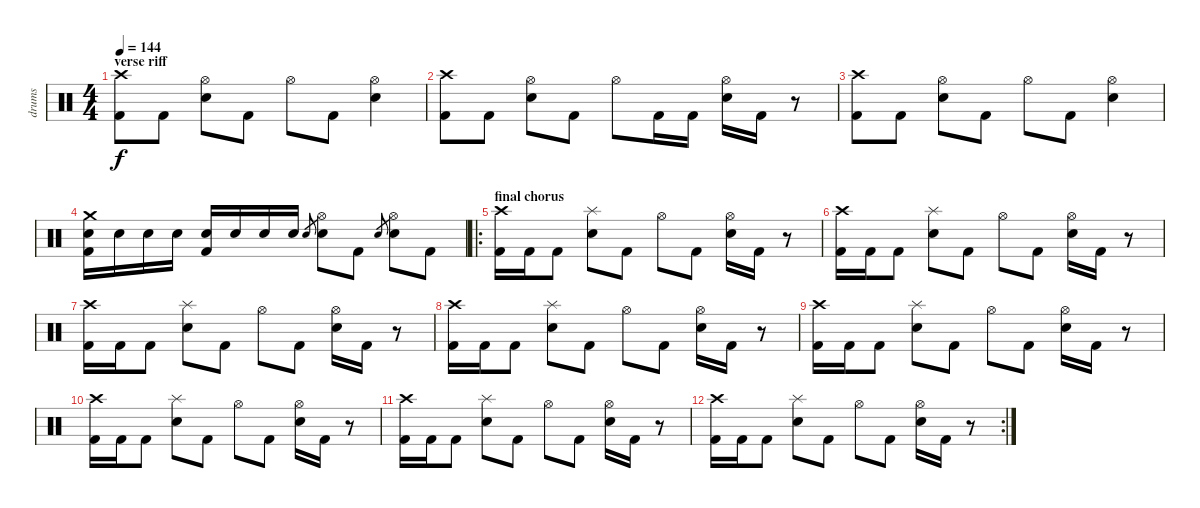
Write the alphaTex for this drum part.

\track ("drums" "drums") {instrument percussion}
\staff {score}
\articulation defaults
\ts (4 4)
\section ("" "verse riff")
\tempo 144
\clef neutral
\ks c
("Crash high (hit)" "Kick (hit) 2").8{dy f} "Kick (hit) 2".8 ("Hi-Hat (open)" "Electric Snare (hit)").8 "Kick (hit) 2".8 "Hi-Hat (open)".8 "Kick (hit) 2".8 ("Hi-Hat (open)" "Electric Snare (hit)").4 |
("Crash high (hit)" "Kick (hit) 2").8 "Kick (hit) 2".8 ("Hi-Hat (open)" "Electric Snare (hit)").8 "Kick (hit) 2".8 "Hi-Hat (open)".8 "Kick (hit) 2".16 "Kick (hit) 2".16 ("Hi-Hat (open)" "Electric Snare (hit)").16 "Kick (hit) 2".16 r.8 |
("Crash high (hit)" "Kick (hit) 2").8 "Kick (hit) 2".8 ("Hi-Hat (open)" "Electric Snare (hit)").8 "Kick (hit) 2".8 "Hi-Hat (open)".8 "Kick (hit) 2".8 ("Hi-Hat (open)" "Electric Snare (hit)").4 |
("Crash medium (hit)" "Electric Snare (hit)" "Kick (hit) 2").16 "Electric Snare (hit)".16 "Electric Snare (hit)".16 "Electric Snare (hit)".16 ("Electric Snare (hit)" "Kick (hit) 2").16 "Electric Snare (hit)".16 "Electric Snare (hit)".16 "Electric Snare (hit)".16 "Electric Snare (hit)".8{gr} ("Hi-Hat (open)" "Electric Snare (hit)").8 "Kick (hit) 2".8 "Electric Snare (hit)".8{gr} ("Hi-Hat (open)" "Electric Snare (hit)").8 "Kick (hit) 2".8 |
\ro
\section ("" "final chorus")
("Crash high (hit)" "Kick (hit) 2").16 "Kick (hit) 2".16 "Kick (hit) 2".8 ("Splash (hit)" "Electric Snare (hit)").8 "Kick (hit) 2".8 "Hi-Hat (open)".8 "Kick (hit) 2".8 ("Hi-Hat (open)" "Electric Snare (hit)").16 "Kick (hit) 2".16 r.8 |
("Crash high (hit)" "Kick (hit) 2").16 "Kick (hit) 2".16 "Kick (hit) 2".8 ("Splash (hit)" "Electric Snare (hit)").8 "Kick (hit) 2".8 "Hi-Hat (open)".8 "Kick (hit) 2".8 ("Hi-Hat (open)" "Electric Snare (hit)").16 "Kick (hit) 2".16 r.8 |
("Crash high (hit)" "Kick (hit) 2").16 "Kick (hit) 2".16 "Kick (hit) 2".8 ("Splash (hit)" "Electric Snare (hit)").8 "Kick (hit) 2".8 "Hi-Hat (open)".8 "Kick (hit) 2".8 ("Hi-Hat (open)" "Electric Snare (hit)").16 "Kick (hit) 2".16 r.8 |
("Crash high (hit)" "Kick (hit) 2").16 "Kick (hit) 2".16 "Kick (hit) 2".8 ("Splash (hit)" "Electric Snare (hit)").8 "Kick (hit) 2".8 "Hi-Hat (open)".8 "Kick (hit) 2".8 ("Hi-Hat (open)" "Electric Snare (hit)").16 "Kick (hit) 2".16 r.8 |
("Crash high (hit)" "Kick (hit) 2").16 "Kick (hit) 2".16 "Kick (hit) 2".8 ("Splash (hit)" "Electric Snare (hit)").8 "Kick (hit) 2".8 "Hi-Hat (open)".8 "Kick (hit) 2".8 ("Hi-Hat (open)" "Electric Snare (hit)").16 "Kick (hit) 2".16 r.8 |
("Crash high (hit)" "Kick (hit) 2").16 "Kick (hit) 2".16 "Kick (hit) 2".8 ("Splash (hit)" "Electric Snare (hit)").8 "Kick (hit) 2".8 "Hi-Hat (open)".8 "Kick (hit) 2".8 ("Hi-Hat (open)" "Electric Snare (hit)").16 "Kick (hit) 2".16 r.8 |
("Crash high (hit)" "Kick (hit) 2").16 "Kick (hit) 2".16 "Kick (hit) 2".8 ("Splash (hit)" "Electric Snare (hit)").8 "Kick (hit) 2".8 "Hi-Hat (open)".8 "Kick (hit) 2".8 ("Hi-Hat (open)" "Electric Snare (hit)").16 "Kick (hit) 2".16 r.8 |
\rc 2
("Crash high (hit)" "Kick (hit) 2").16 "Kick (hit) 2".16 "Kick (hit) 2".8 ("Splash (hit)" "Electric Snare (hit)").8 "Kick (hit) 2".8 "Hi-Hat (open)".8 "Kick (hit) 2".8 ("Hi-Hat (open)" "Electric Snare (hit)").16 "Kick (hit) 2".16 r.8
